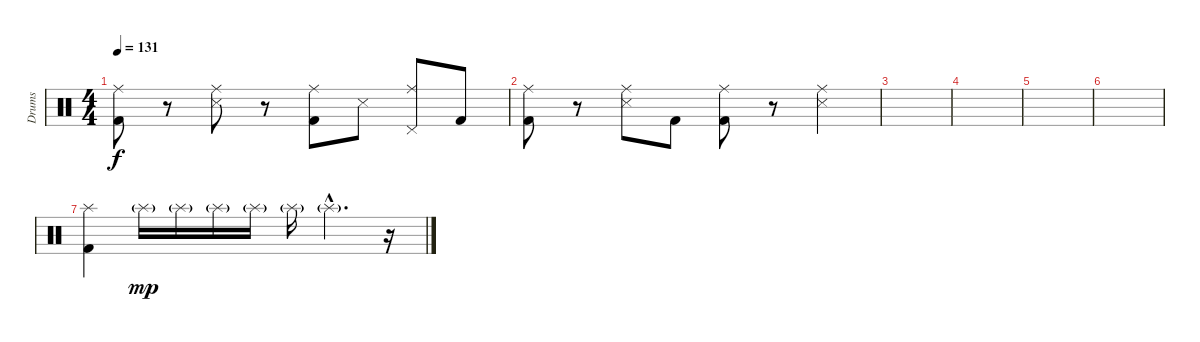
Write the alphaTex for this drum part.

\track ("Drums" "Drums") {instrument percussion}
\staff {score}
\articulation defaults
\ts (4 4)
\tempo 131
\clef neutral
\ks c
("Ride (middle)" "Kick (hit) 2").8{dy f} r.8 ("Ride (middle)" "Snare (side stick) 3").8 r.8 ("Ride (middle)" "Kick (hit) 2").8 "Snare (side stick) 3".8 ("Ride (middle)" "Pedal Hi-Hat (hit)").8 "Kick (hit) 2".8 |
("Ride (middle)" "Kick (hit) 2").8 r.8 ("Ride (middle)" "Snare (side stick) 3").8 "Kick (hit) 2".8 ("Ride (middle)" "Kick (hit) 2").8 r.8 ("Ride (middle)" "Snare (side stick) 3").4 |
|
|
|
|
("Splash (hit)" "Kick (hit) 2").4 "Splash (hit)"{g}.16{dy mp} "Splash (hit)"{g}.16 "Splash (hit)"{g}.16 "Splash (hit)"{g}.16 "Splash (hit)"{g}.16 "Splash (hit)"{g hac}.4{d} r.16
